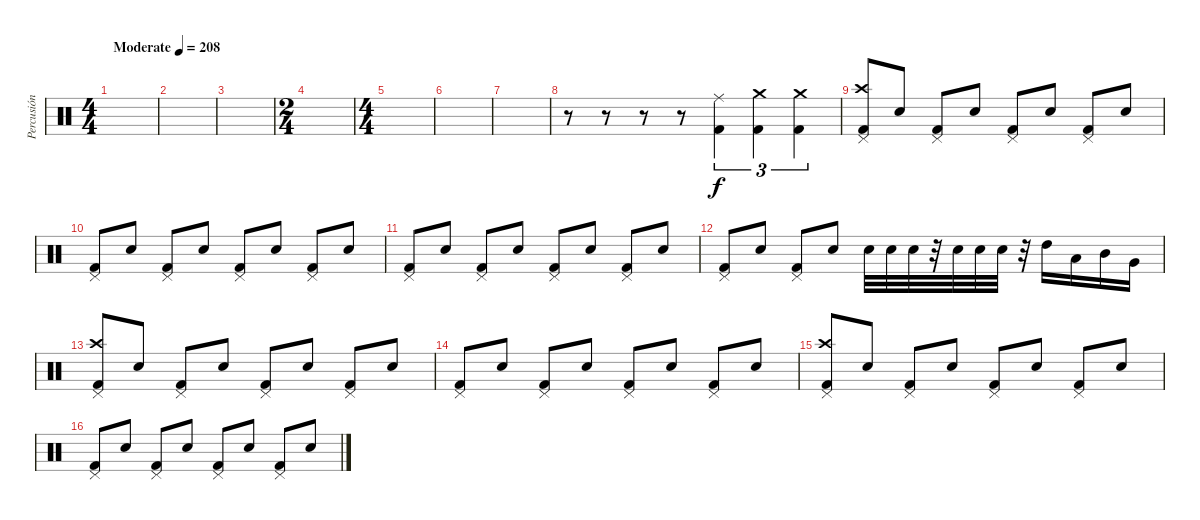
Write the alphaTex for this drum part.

\track ("Percusión" "Percusión") {instrument percussion}
\staff {score}
\articulation defaults
\ts (4 4)
\tempo (208 "Moderate")
\clef neutral
\ks c
|
|
|
\ts (2 4)
|
\ts (4 4)
|
|
|
r.8 r.8 r.8 r.8 ("Ride (middle)" "Kick (hit) 2").4{tu (3 2)} ("Crash medium (hit)" "Kick (hit) 2").4{tu (3 2)} ("Crash medium (hit)" "Kick (hit) 2").4{tu (3 2)} |
("Crash high (hit)" "Pedal Hi-Hat (hit)" "Kick (hit) 2").8 "Electric Snare (hit)".8 ("Pedal Hi-Hat (hit)" "Kick (hit) 2").8 "Electric Snare (hit)".8 ("Pedal Hi-Hat (hit)" "Kick (hit) 2").8 "Electric Snare (hit)".8 ("Pedal Hi-Hat (hit)" "Kick (hit) 2").8 "Electric Snare (hit)".8 |
("Pedal Hi-Hat (hit)" "Kick (hit) 2").8 "Electric Snare (hit)".8 ("Pedal Hi-Hat (hit)" "Kick (hit) 2").8 "Electric Snare (hit)".8 ("Pedal Hi-Hat (hit)" "Kick (hit) 2").8 "Electric Snare (hit)".8 ("Pedal Hi-Hat (hit)" "Kick (hit) 2").8 "Electric Snare (hit)".8 |
("Pedal Hi-Hat (hit)" "Kick (hit) 2").8 "Electric Snare (hit)".8 ("Pedal Hi-Hat (hit)" "Kick (hit) 2").8 "Electric Snare (hit)".8 ("Pedal Hi-Hat (hit)" "Kick (hit) 2").8 "Electric Snare (hit)".8 ("Pedal Hi-Hat (hit)" "Kick (hit) 2").8 "Electric Snare (hit)".8 |
("Pedal Hi-Hat (hit)" "Kick (hit) 2").8 "Electric Snare (hit)".8 ("Pedal Hi-Hat (hit)" "Kick (hit) 2").8 "Electric Snare (hit)".8 "Electric Snare (hit)".32 "Electric Snare (hit)".32 "Electric Snare (hit)".32 r.32 "Electric Snare (hit)".32 "Electric Snare (hit)".32 "Electric Snare (hit)".32 r.32 "High Tom (hit)".16 "Low Tom (hit)".16 "Mid Tom (hit)".16 "Very Low Tom (hit)".16 |
("Crash high (hit)" "Pedal Hi-Hat (hit)" "Kick (hit) 2").8 "Electric Snare (hit)".8 ("Pedal Hi-Hat (hit)" "Kick (hit) 2").8 "Electric Snare (hit)".8 ("Pedal Hi-Hat (hit)" "Kick (hit) 2").8 "Electric Snare (hit)".8 ("Pedal Hi-Hat (hit)" "Kick (hit) 2").8 "Electric Snare (hit)".8 |
("Pedal Hi-Hat (hit)" "Kick (hit) 2").8 "Electric Snare (hit)".8 ("Pedal Hi-Hat (hit)" "Kick (hit) 2").8 "Electric Snare (hit)".8 ("Pedal Hi-Hat (hit)" "Kick (hit) 2").8 "Electric Snare (hit)".8 ("Pedal Hi-Hat (hit)" "Kick (hit) 2").8 "Electric Snare (hit)".8 |
("Crash high (hit)" "Pedal Hi-Hat (hit)" "Kick (hit) 2").8 "Electric Snare (hit)".8 ("Pedal Hi-Hat (hit)" "Kick (hit) 2").8 "Electric Snare (hit)".8 ("Pedal Hi-Hat (hit)" "Kick (hit) 2").8 "Electric Snare (hit)".8 ("Pedal Hi-Hat (hit)" "Kick (hit) 2").8 "Electric Snare (hit)".8 |
("Pedal Hi-Hat (hit)" "Kick (hit) 2").8 "Electric Snare (hit)".8 ("Pedal Hi-Hat (hit)" "Kick (hit) 2").8 "Electric Snare (hit)".8 ("Pedal Hi-Hat (hit)" "Kick (hit) 2").8 "Electric Snare (hit)".8 ("Pedal Hi-Hat (hit)" "Kick (hit) 2").8 "Electric Snare (hit)".8
